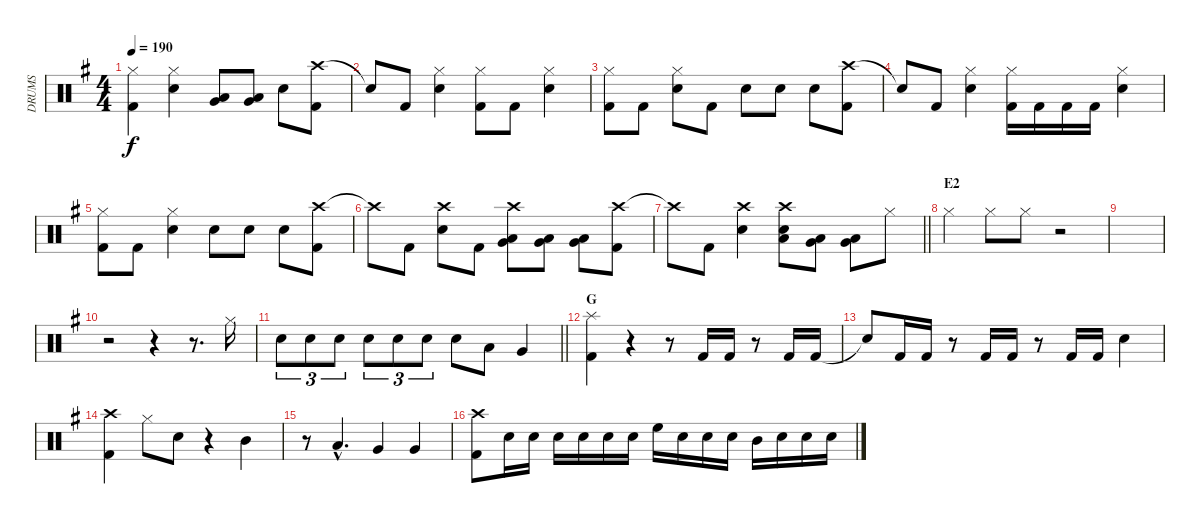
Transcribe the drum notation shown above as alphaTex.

\track ("DRUMS" "DRUMS") {instrument percussion}
\staff {score}
\articulation defaults
\ts (4 4)
\tempo 190
\clef neutral
\ks g
("Hi-Hat (closed)" "Kick (hit) 2").4{dy f} ("Hi-Hat (closed)" "Snare (hit) 2").4 ("Low Tom (hit)" "Very Low Tom (hit)").8 ("Low Tom (hit)" "Very Low Tom (hit)").8 "Snare (hit) 2".8 ("Crash high (hit)" "Kick (hit) 2").8 |
"Snare (hit)"{t}.8 "Kick (hit) 2".8 ("Hi-Hat (closed)" "Snare (hit) 2").4 ("Hi-Hat (closed)" "Kick (hit) 2").8 "Kick (hit) 2".8 ("Hi-Hat (closed)" "Snare (hit) 2").4 |
("Hi-Hat (closed)" "Kick (hit) 2").8 "Kick (hit) 2".8 ("Hi-Hat (closed)" "Snare (hit) 2").8 "Kick (hit) 2".8 "Snare (hit) 2".8 "Snare (hit) 2".8 "Snare (hit) 2".8 ("Crash high (hit)" "Kick (hit) 2").8 |
"Snare (hit)"{t}.8 "Kick (hit) 2".8 ("Hi-Hat (closed)" "Snare (hit) 2").4 ("Hi-Hat (closed)" "Kick (hit) 2").16 "Kick (hit) 2".16 "Kick (hit) 2".16 "Kick (hit) 2".16 ("Hi-Hat (closed)" "Snare (hit) 2").4 |
("Hi-Hat (closed)" "Kick (hit) 2").8 "Kick (hit) 2".8 ("Hi-Hat (closed)" "Snare (hit) 2").4 "Snare (hit) 2".8 "Snare (hit) 2".8 "Snare (hit) 2".8 ("Crash high (hit)" "Kick (hit) 2").8 |
"Crash high (hit)"{t}.8 "Kick (hit) 2".8 ("Crash high (hit)" "Snare (hit) 2").8 "Kick (hit) 2".8 ("Crash high (hit)" "Very Low Tom (hit)" "Low Tom (hit)").8 ("Very Low Tom (hit)" "Low Tom (hit)").8 ("Very Low Tom (hit)" "Low Tom (hit)").8 ("Crash high (hit)" "Kick (hit) 2").8 |
\barLineRight lightlight "Crash high (hit)"{t}.8 "Kick (hit) 2".8
("Crash high (hit)" "Snare (hit) 2").4 ("Crash high (hit)" "Snare (hit) 2" "Low Tom (hit)").8 ("Very Low Tom (hit)" "Low Tom (hit)").8 ("Very Low Tom (hit)" "Low Tom (hit)").8 "Hi-Hat (closed)".8 |
\section ("" "E2")
"Hi-Hat (closed)".4 "Hi-Hat (closed)".8 "Hi-Hat (closed)".8 r.2 |
|
r.2 r.4 r.8{d} "Hi-Hat (closed)".16 |
\barLineRight lightlight "Snare (hit) 2".8{tu (3 2)} "Snare (hit) 2".8{tu (3 2)} "Snare (hit) 2".8{tu (3 2)} "Snare (hit) 2".8{tu (3 2)} "Snare (hit) 2".8{tu (3 2)} "Snare (hit) 2".8{tu (3 2)} "Snare (hit) 2".8 "Low Tom (hit)".8 "Very Low Tom (hit)".4
|
\section ("" "G")
("Splash (hit)" "Kick (hit) 2").4 r.4 r.8 "Kick (hit) 2".16 "Kick (hit) 2".16 r.8 "Kick (hit) 2".16 "Kick (hit) 2".16 |
"Snare (hit)"{t}.8 "Kick (hit) 2".16 "Kick (hit) 2".16 r.8 "Kick (hit) 2".16 "Kick (hit) 2".16 r.8 "Kick (hit) 2".16 "Kick (hit) 2".16 "Snare (hit) 2".4 |
("Crash high (hit)" "Kick (hit) 2").4 "Hi-Hat (closed)".8 "Snare (hit) 2".8 r.4 "Mid Tom (hit)".4 |
r.8 "Low Tom (hit)"{hac}.4{d} "Very Low Tom (hit)".4 "Very Low Tom (hit)".4 |
("Crash high (hit)" "Kick (hit) 2").8 "Snare (hit) 2".16 "Snare (hit) 2".16 "Snare (hit) 2".16 "Snare (hit) 2".16 "Snare (hit) 2".16 "Snare (hit) 2".16 "High Floor Tom (hit)".16 "Snare (hit) 2".16 "Snare (hit) 2".16 "Snare (hit) 2".16 "Mid Tom (hit)".16 "Snare (hit) 2".16 "Snare (hit) 2".16 "Snare (hit) 2".16
